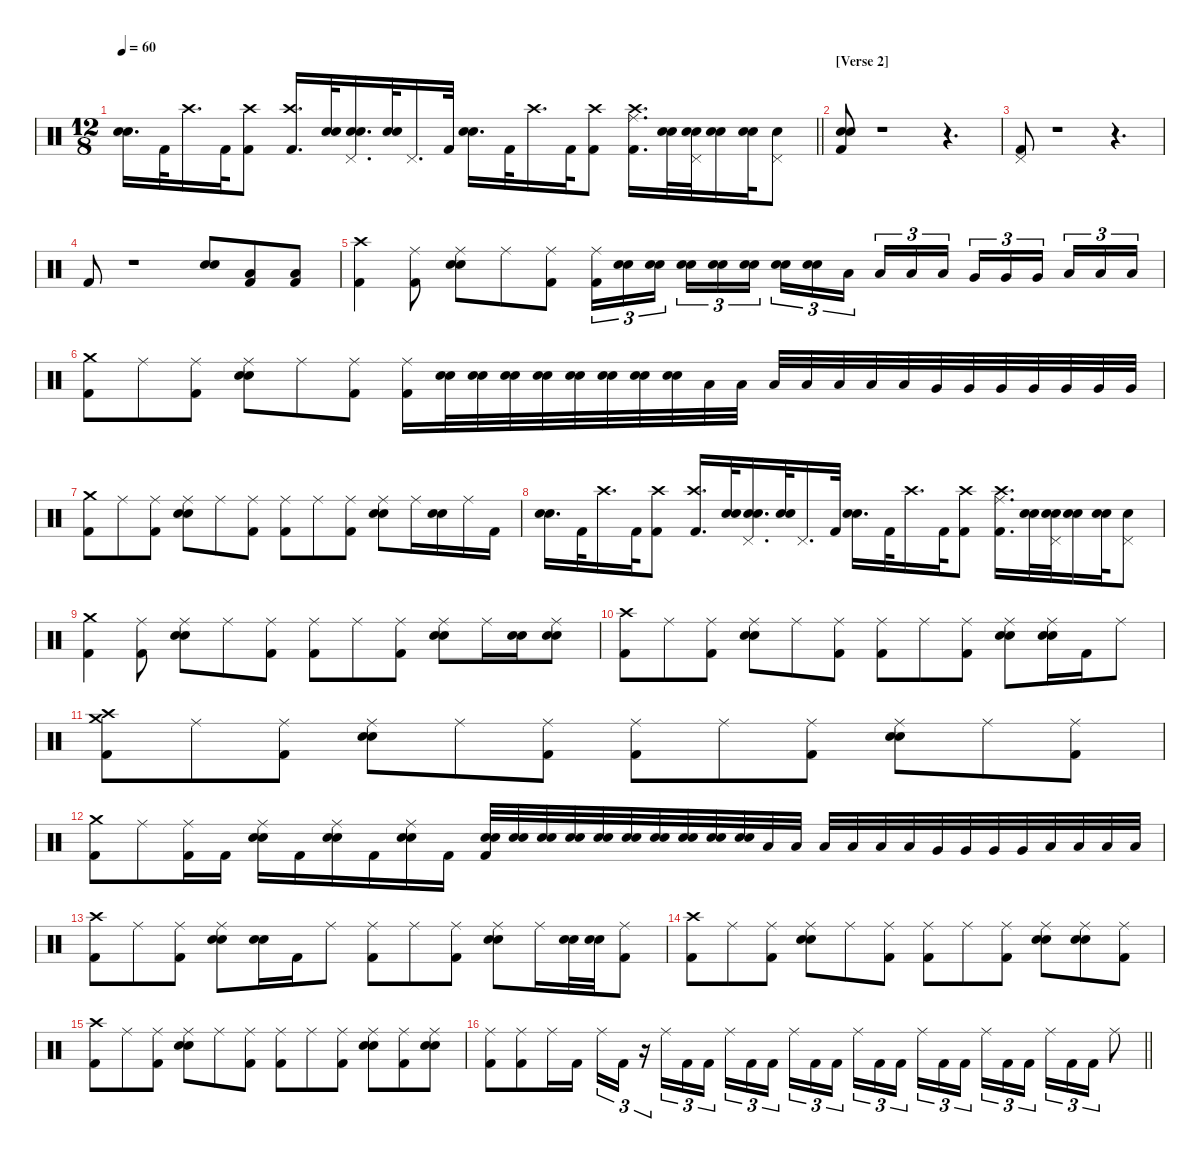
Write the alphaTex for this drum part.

\defaultSystemsLayout 4
\hideDynamics
\bracketExtendMode nobrackets
\singleTrackTrackNamePolicy hidden
\multiTrackTrackNamePolicy hidden
\otherSystemsTrackNameOrientation horizontal
\track ("Drums" "drm.") {instrument percussion}
\staff {score}
\articulation defaults
\ts (12 8)
\tempo 60
\clef neutral
\barLineRight lightlight
\ks c
("Snare (hit) 2" "Snare (hit) 2").16{d dy mf beam Down} "Kick (hit) 2".32{dy f beam Down} "Crash high (hit)".16{d beam Down} "Kick (hit) 2".32{beam Down} ("Crash high (hit)" "Kick (hit) 2").8{beam Down} ("Crash high (hit)" "Kick (hit) 2").16{d beam Up} ("Snare (hit) 2" "Snare (hit) 2").32{dy mf beam Up} ("Pedal Hi-Hat (hit)" "Snare (hit) 2" "Snare (hit) 2").16{d dy f beam Up} ("Snare (hit) 2" "Snare (hit) 2").32{beam Up} "Pedal Hi-Hat (hit)".16{d beam Up} "Kick (hit) 2".32{beam Up} ("Snare (hit) 2" "Snare (hit) 2").16{d beam Down} "Kick (hit) 2".32{beam Down} "Crash high (hit)".16{d beam Down} "Kick (hit) 2".32{beam Down} ("Kick (hit) 2" "Crash high (hit)").8{beam Down} ("Ride (middle)" "Kick (hit) 2" "Crash high (hit)").16{d beam Down} ("Snare (hit) 2" "Snare (hit) 2").32{beam Down} ("Pedal Hi-Hat (hit)" "Snare (hit) 2" "Snare (hit) 2").32{beam Down} ("Snare (hit) 2" "Snare (hit) 2").16{dy mf beam Down} ("Snare (hit) 2" "Snare (hit) 2").32{beam Down} ("Pedal Hi-Hat (hit)" "Snare (hit) 2").8{dy f beam Down} |
\section ("" "[Verse 2]")
("Snare (hit) 2" "Kick (hit) 2" "Snare (hit) 2").8{dy ff beam Up} r.1{beam Down} r.4{d beam Down} |
("Pedal Hi-Hat (hit)" "Kick (hit) 2").8{dy fff beam Up} r.1{beam Down} r.4{d beam Down} |
"Kick (hit) 2".8{dy mf beam Up} r.1{beam Down} ("Snare (hit) 2" "Snare (hit) 2").8{dy fff beam Up} ("Low Floor Tom (hit)" "Kick (hit) 2").8{beam Up} ("Low Floor Tom (hit)" "Kick (hit) 2").8{beam Up} |
("Crash high (hit)" "Kick (hit) 2").4{beam Down} ("Ride (middle)" "Kick (hit) 2").8{dy f beam Down} ("Ride (middle)" "Snare (hit) 2" "Snare (hit) 2").8{beam Down} "Ride (middle)".8{beam Down} ("Ride (middle)" "Kick (hit) 2").8{beam Down} ("Ride (middle)" "Kick (hit) 2").16{tu (3 2) beam Down} ("Snare (hit) 2" "Snare (hit) 2").16{tu (3 2) dy mf beam Down} ("Snare (hit) 2" "Snare (hit) 2").16{tu (3 2) beam Down} ("Snare (hit) 2" "Snare (hit) 2").16{tu (3 2) beam Down} ("Snare (hit) 2" "Snare (hit) 2").16{tu (3 2) beam Down} ("Snare (hit) 2" "Snare (hit) 2").16{tu (3 2) beam Down} ("Snare (hit) 2" "Snare (hit) 2").16{tu (3 2) beam Down} ("Snare (hit) 2" "Snare (hit) 2").16{tu (3 2) beam Down} "Low Tom (hit)".16{tu (3 2) dy f beam Down} "Low Tom (hit)".16{tu (3 2) beam Up} "Low Tom (hit)".16{tu (3 2) beam Up} "Low Tom (hit)".16{tu (3 2) beam Up} "Very Low Tom (hit)".16{tu (3 2) beam Up} "Very Low Tom (hit)".16{tu (3 2) beam Up} "Very Low Tom (hit)".16{tu (3 2) beam Up} "Low Floor Tom (hit)".16{tu (3 2) beam Up} "Low Floor Tom (hit)".16{tu (3 2) beam Up} "Low Floor Tom (hit)".16{tu (3 2) beam Up} |
("Crash medium (hit)" "Kick (hit) 2").8{beam Down} "Ride (middle)".8{beam Down} ("Ride (middle)" "Kick (hit) 2").8{beam Down} ("Ride (middle)" "Snare (hit) 2" "Snare (hit) 2").8{beam Down} "Ride (middle)".8{beam Down} ("Ride (middle)" "Kick (hit) 2").8{beam Down} ("Ride (middle)" "Kick (hit) 2").16{beam Down} ("Snare (hit) 2" "Snare (hit) 2").32{dy mf beam Down} ("Snare (hit) 2" "Snare (hit) 2").32{beam Down} ("Snare (hit) 2" "Snare (hit) 2").32{beam Down} ("Snare (hit) 2" "Snare (hit) 2").32{beam Down} ("Snare (hit) 2" "Snare (hit) 2").32{beam Down} ("Snare (hit) 2" "Snare (hit) 2").32{beam Down} ("Snare (hit) 2" "Snare (hit) 2").32{beam Down} ("Snare (hit) 2" "Snare (hit) 2").32{beam Down} "Low Tom (hit)".32{dy f beam Down} "Low Tom (hit)".32{beam Down} "Low Tom (hit)".32{beam Up} "Low Tom (hit)".32{beam Up} "Low Tom (hit)".32{beam Up} "Low Tom (hit)".32{beam Up} "Low Tom (hit)".32{beam Up} "Very Low Tom (hit)".32{beam Up} "Very Low Tom (hit)".32{beam Up} "Very Low Tom (hit)".32{beam Up} "Very Low Tom (hit)".32{beam Up} "Very Low Tom (hit)".32{beam Up} "Very Low Tom (hit)".32{beam Up} "Very Low Tom (hit)".32{beam Up} |
("Crash medium (hit)" "Kick (hit) 2").8{beam Down} "Ride (middle)".8{beam Down} ("Ride (middle)" "Kick (hit) 2").8{beam Down} ("Ride (middle)" "Snare (hit) 2" "Snare (hit) 2").8{beam Down} "Ride (middle)".8{beam Down} ("Ride (middle)" "Kick (hit) 2").8{beam Down} ("Ride (middle)" "Kick (hit) 2").8{beam Down} "Ride (middle)".8{beam Down} ("Ride (middle)" "Kick (hit) 2").8{beam Down} ("Ride (middle)" "Snare (hit) 2" "Snare (hit) 2").8{beam Down} "Ride (middle)".16{beam Down} ("Snare (hit) 2" "Snare (hit) 2").16{beam Down} "Ride (middle)".16{beam Down} "Kick (hit) 2".16{beam Down} |
("Snare (hit) 2" "Snare (hit) 2").16{d dy mf beam Down} "Kick (hit) 2".32{dy f beam Down} "Crash high (hit)".16{d beam Down} "Kick (hit) 2".32{beam Down} ("Crash high (hit)" "Kick (hit) 2").8{beam Down} ("Crash high (hit)" "Kick (hit) 2").16{d beam Up} ("Snare (hit) 2" "Snare (hit) 2").32{dy mf beam Up} ("Pedal Hi-Hat (hit)" "Snare (hit) 2" "Snare (hit) 2").16{d dy f beam Up} ("Snare (hit) 2" "Snare (hit) 2").32{beam Up} "Pedal Hi-Hat (hit)".16{d beam Up} "Kick (hit) 2".32{beam Up} ("Snare (hit) 2" "Snare (hit) 2").16{d beam Down} "Kick (hit) 2".32{beam Down} "Crash high (hit)".16{d beam Down} "Kick (hit) 2".32{beam Down} ("Kick (hit) 2" "Crash high (hit)").8{beam Down} ("Ride (middle)" "Kick (hit) 2" "Crash high (hit)").16{d beam Down} ("Snare (hit) 2" "Snare (hit) 2").32{beam Down} ("Pedal Hi-Hat (hit)" "Snare (hit) 2" "Snare (hit) 2").32{beam Down} ("Snare (hit) 2" "Snare (hit) 2").16{dy mf beam Down} ("Snare (hit) 2" "Snare (hit) 2").32{beam Down} ("Pedal Hi-Hat (hit)" "Snare (hit) 2").8{dy f beam Down} |
("Crash medium (hit)" "Kick (hit) 2").4{beam Down} ("Ride (middle)" "Kick (hit) 2").8{beam Down} ("Ride (middle)" "Snare (hit) 2" "Snare (hit) 2").8{beam Down} "Ride (middle)".8{beam Down} ("Ride (middle)" "Kick (hit) 2").8{beam Down} ("Ride (middle)" "Kick (hit) 2").8{beam Down} "Ride (middle)".8{beam Down} ("Ride (middle)" "Kick (hit) 2").8{beam Down} ("Ride (middle)" "Snare (hit) 2" "Snare (hit) 2").8{beam Down} "Ride (middle)".16{beam Down} ("Snare (hit) 2" "Snare (hit) 2").16{dy mf beam Down} ("Ride (middle)" "Snare (hit) 2" "Snare (hit) 2").8{dy f beam Down} |
("Crash high (hit)" "Kick (hit) 2").8{beam Down} "Ride (middle)".8{beam Down} ("Ride (middle)" "Kick (hit) 2").8{beam Down} ("Ride (middle)" "Snare (hit) 2" "Snare (hit) 2").8{beam Down} "Ride (middle)".8{beam Down} ("Ride (middle)" "Kick (hit) 2").8{beam Down} ("Ride (middle)" "Kick (hit) 2").8{beam Down} "Ride (middle)".8{beam Down} ("Ride (middle)" "Kick (hit) 2").8{beam Down} ("Ride (middle)" "Snare (hit) 2" "Snare (hit) 2").8{beam Down} ("Ride (middle)" "Snare (hit) 2" "Snare (hit) 2").16{beam Down} "Kick (hit) 2".16{beam Down} "Ride (middle)".8{beam Down} |
("Crash high (hit)" "Crash medium (hit)" "Kick (hit) 2").8{dy fff beam Down} "Ride (middle)".8{dy f beam Down} ("Ride (middle)" "Kick (hit) 2").8{beam Down} ("Ride (middle)" "Snare (hit) 2" "Snare (hit) 2").8{beam Down} "Ride (middle)".8{beam Down} ("Ride (middle)" "Kick (hit) 2").8{beam Down} ("Ride (middle)" "Kick (hit) 2").8{beam Down} "Ride (middle)".8{beam Down} ("Ride (middle)" "Kick (hit) 2").8{beam Down} ("Ride (middle)" "Snare (hit) 2" "Snare (hit) 2").8{beam Down} "Ride (middle)".8{beam Down} ("Ride (middle)" "Kick (hit) 2").8{beam Down} |
("Crash medium (hit)" "Kick (hit) 2").8{beam Down} "Ride (middle)".8{beam Down} ("Ride (middle)" "Kick (hit) 2").16{beam Down} "Kick (hit) 2".16{beam Down} ("Ride (middle)" "Snare (hit) 2" "Snare (hit) 2").16{beam Down} "Kick (hit) 2".16{beam Down} ("Ride (middle)" "Snare (hit) 2" "Snare (hit) 2").16{beam Down} "Kick (hit) 2".16{beam Down} ("Ride (middle)" "Snare (hit) 2" "Snare (hit) 2").16{beam Down} "Kick (hit) 2".16{beam Down} ("Snare (hit) 2" "Snare (hit) 2" "Kick (hit) 2").32{dy mf beam Up} ("Snare (hit) 2" "Snare (hit) 2").32{beam Up} ("Snare (hit) 2" "Snare (hit) 2").32{beam Up} ("Snare (hit) 2" "Snare (hit) 2").32{beam Up} ("Snare (hit) 2" "Snare (hit) 2").32{beam Up} ("Snare (hit) 2" "Snare (hit) 2").32{beam Up} ("Snare (hit) 2" "Snare (hit) 2").32{beam Up} ("Snare (hit) 2" "Snare (hit) 2").32{beam Up} ("Snare (hit) 2" "Snare (hit) 2").32{beam Up} ("Snare (hit) 2" "Snare (hit) 2").32{beam Up} "Low Tom (hit)".32{dy f beam Up} "Low Tom (hit)".32{beam Up} "Low Tom (hit)".32{beam Up} "Low Tom (hit)".32{beam Up} "Low Tom (hit)".32{beam Up} "Low Tom (hit)".32{beam Up} "Very Low Tom (hit)".32{beam Up} "Very Low Tom (hit)".32{beam Up} "Very Low Tom (hit)".32{beam Up} "Very Low Tom (hit)".32{beam Up} "Low Floor Tom (hit)".32{beam Up} "Low Floor Tom (hit)".32{beam Up} "Low Floor Tom (hit)".32{beam Up} "Low Floor Tom (hit)".32{beam Up} |
("Crash high (hit)" "Kick (hit) 2").8{dy fff beam Down} "Ride (middle)".8{dy f beam Down} ("Ride (middle)" "Kick (hit) 2").8{beam Down} ("Ride (middle)" "Snare (hit) 2" "Snare (hit) 2").8{beam Down} ("Snare (hit) 2" "Snare (hit) 2").16{beam Down} "Kick (hit) 2".16{beam Down} "Ride (middle)".8{beam Down} ("Ride (middle)" "Kick (hit) 2").8{beam Down} "Ride (middle)".8{beam Down} ("Ride (middle)" "Kick (hit) 2").8{beam Down} ("Ride (middle)" "Snare (hit) 2" "Snare (hit) 2").8{beam Down} "Ride (middle)".16{beam Down} ("Snare (hit) 2" "Snare (hit) 2").32{beam Down} ("Snare (hit) 2" "Snare (hit) 2").32{dy mf beam Down} ("Ride (middle)" "Kick (hit) 2").8{dy f beam Down} |
("Crash high (hit)" "Kick (hit) 2").8{beam Down} "Ride (middle)".8{beam Down} ("Ride (middle)" "Kick (hit) 2").8{beam Down} ("Ride (middle)" "Snare (hit) 2" "Snare (hit) 2").8{beam Down} "Ride (middle)".8{beam Down} ("Ride (middle)" "Kick (hit) 2").8{beam Down} ("Ride (middle)" "Kick (hit) 2").8{beam Down} "Ride (middle)".8{beam Down} ("Ride (middle)" "Kick (hit) 2").8{beam Down} ("Ride (middle)" "Snare (hit) 2" "Snare (hit) 2").8{beam Down} ("Ride (middle)" "Snare (hit) 2" "Snare (hit) 2").8{beam Down} ("Ride (middle)" "Kick (hit) 2").8{beam Down} |
("Crash high (hit)" "Kick (hit) 2").8{dy fff beam Down} "Ride (middle)".8{dy f beam Down} ("Ride (middle)" "Kick (hit) 2").8{beam Down} ("Ride (middle)" "Snare (hit) 2" "Snare (hit) 2").8{beam Down} "Ride (middle)".8{beam Down} ("Ride (middle)" "Kick (hit) 2").8{beam Down} ("Ride (middle)" "Kick (hit) 2").8{beam Down} "Ride (middle)".8{beam Down} ("Ride (middle)" "Kick (hit) 2").8{beam Down} ("Ride (middle)" "Snare (hit) 2" "Snare (hit) 2").8{beam Down} ("Ride (middle)" "Kick (hit) 2").8{beam Down} ("Ride (middle)" "Snare (hit) 2" "Snare (hit) 2").8{beam Down} |
\barLineRight lightlight
("Ride (middle)" "Kick (hit) 2").8{beam Down} ("Ride (middle)" "Kick (hit) 2").8{beam Down} "Ride (middle)".16{beam Down} "Kick (hit) 2".16{beam Down} "Ride (middle)".16{tu (3 2) beam Down} "Kick (hit) 2".16{tu (3 2) beam Down} r.16{tu (3 2) beam Down} "Ride (middle)".16{tu (3 2) beam Down} "Kick (hit) 2".16{tu (3 2) beam Down} "Kick (hit) 2".16{tu (3 2) beam Down} "Ride (middle)".16{tu (3 2) beam Down} "Kick (hit) 2".16{tu (3 2) beam Down} "Kick (hit) 2".16{tu (3 2) beam Down} "Ride (middle)".16{tu (3 2) beam Down} "Kick (hit) 2".16{tu (3 2) beam Down} "Kick (hit) 2".16{tu (3 2) beam Down} "Ride (middle)".16{tu (3 2) beam Down} "Kick (hit) 2".16{tu (3 2) beam Down} "Kick (hit) 2".16{tu (3 2) beam Down} "Ride (middle)".16{tu (3 2) beam Down} "Kick (hit) 2".16{tu (3 2) beam Down} "Kick (hit) 2".16{tu (3 2) beam Down} "Ride (middle)".16{tu (3 2) beam Down} "Kick (hit) 2".16{tu (3 2) beam Down} "Kick (hit) 2".16{tu (3 2) beam Down} "Ride (middle)".16{tu (3 2) beam Down} "Kick (hit) 2".16{tu (3 2) beam Down} "Kick (hit) 2".16{tu (3 2) beam Down} "Ride (middle)".8{beam Down}
